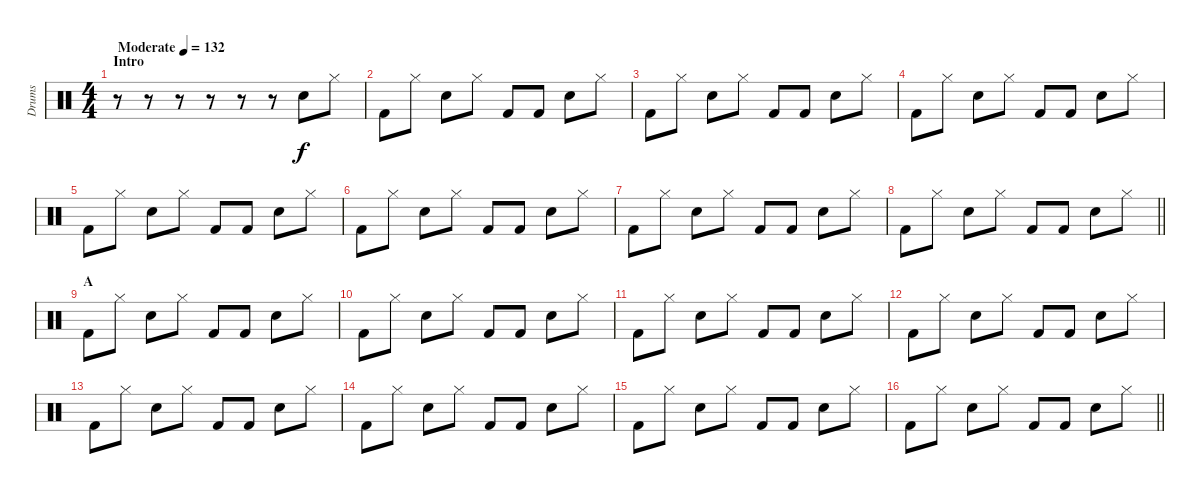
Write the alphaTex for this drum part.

\track ("Drums" "Drums") {instrument percussion}
\staff {score}
\articulation defaults
\ts (4 4)
\section ("" "Intro")
\tempo (132 "Moderate")
\clef neutral
\ks c
r.8{dy f} r.8 r.8 r.8 r.8 r.8 "Electric Snare (hit)".8 "Hi-Hat (closed)".8 |
"Kick (hit) 2".8 "Hi-Hat (closed)".8 "Electric Snare (hit)".8 "Hi-Hat (closed)".8 "Kick (hit) 2".8 "Kick (hit) 2".8 "Electric Snare (hit)".8 "Hi-Hat (closed)".8 |
"Kick (hit) 2".8 "Hi-Hat (closed)".8 "Electric Snare (hit)".8 "Hi-Hat (closed)".8 "Kick (hit) 2".8 "Kick (hit) 2".8 "Electric Snare (hit)".8 "Hi-Hat (closed)".8 |
"Kick (hit) 2".8 "Hi-Hat (closed)".8 "Electric Snare (hit)".8 "Hi-Hat (closed)".8 "Kick (hit) 2".8 "Kick (hit) 2".8 "Electric Snare (hit)".8 "Hi-Hat (closed)".8 |
"Kick (hit) 2".8 "Hi-Hat (closed)".8 "Electric Snare (hit)".8 "Hi-Hat (closed)".8 "Kick (hit) 2".8 "Kick (hit) 2".8 "Electric Snare (hit)".8 "Hi-Hat (closed)".8 |
"Kick (hit) 2".8 "Hi-Hat (closed)".8 "Electric Snare (hit)".8 "Hi-Hat (closed)".8 "Kick (hit) 2".8 "Kick (hit) 2".8 "Electric Snare (hit)".8 "Hi-Hat (closed)".8 |
"Kick (hit) 2".8 "Hi-Hat (closed)".8 "Electric Snare (hit)".8 "Hi-Hat (closed)".8 "Kick (hit) 2".8 "Kick (hit) 2".8 "Electric Snare (hit)".8 "Hi-Hat (closed)".8 |
\barLineRight lightlight "Kick (hit) 2".8 "Hi-Hat (closed)".8 "Electric Snare (hit)".8 "Hi-Hat (closed)".8 "Kick (hit) 2".8 "Kick (hit) 2".8 "Electric Snare (hit)".8 "Hi-Hat (closed)".8
|
\section ("" "A")
"Kick (hit) 2".8 "Hi-Hat (closed)".8 "Electric Snare (hit)".8 "Hi-Hat (closed)".8 "Kick (hit) 2".8 "Kick (hit) 2".8 "Electric Snare (hit)".8 "Hi-Hat (closed)".8 |
"Kick (hit) 2".8 "Hi-Hat (closed)".8 "Electric Snare (hit)".8 "Hi-Hat (closed)".8 "Kick (hit) 2".8 "Kick (hit) 2".8 "Electric Snare (hit)".8 "Hi-Hat (closed)".8 |
"Kick (hit) 2".8 "Hi-Hat (closed)".8 "Electric Snare (hit)".8 "Hi-Hat (closed)".8 "Kick (hit) 2".8 "Kick (hit) 2".8 "Electric Snare (hit)".8 "Hi-Hat (closed)".8 |
"Kick (hit) 2".8 "Hi-Hat (closed)".8 "Electric Snare (hit)".8 "Hi-Hat (closed)".8 "Kick (hit) 2".8 "Kick (hit) 2".8 "Electric Snare (hit)".8 "Hi-Hat (closed)".8 |
"Kick (hit) 2".8 "Hi-Hat (closed)".8 "Electric Snare (hit)".8 "Hi-Hat (closed)".8 "Kick (hit) 2".8 "Kick (hit) 2".8 "Electric Snare (hit)".8 "Hi-Hat (closed)".8 |
"Kick (hit) 2".8 "Hi-Hat (closed)".8 "Electric Snare (hit)".8 "Hi-Hat (closed)".8 "Kick (hit) 2".8 "Kick (hit) 2".8 "Electric Snare (hit)".8 "Hi-Hat (closed)".8 |
"Kick (hit) 2".8 "Hi-Hat (closed)".8 "Electric Snare (hit)".8 "Hi-Hat (closed)".8 "Kick (hit) 2".8 "Kick (hit) 2".8 "Electric Snare (hit)".8 "Hi-Hat (closed)".8 |
\barLineRight lightlight "Kick (hit) 2".8 "Hi-Hat (closed)".8 "Electric Snare (hit)".8 "Hi-Hat (closed)".8 "Kick (hit) 2".8 "Kick (hit) 2".8 "Electric Snare (hit)".8 "Hi-Hat (closed)".8
